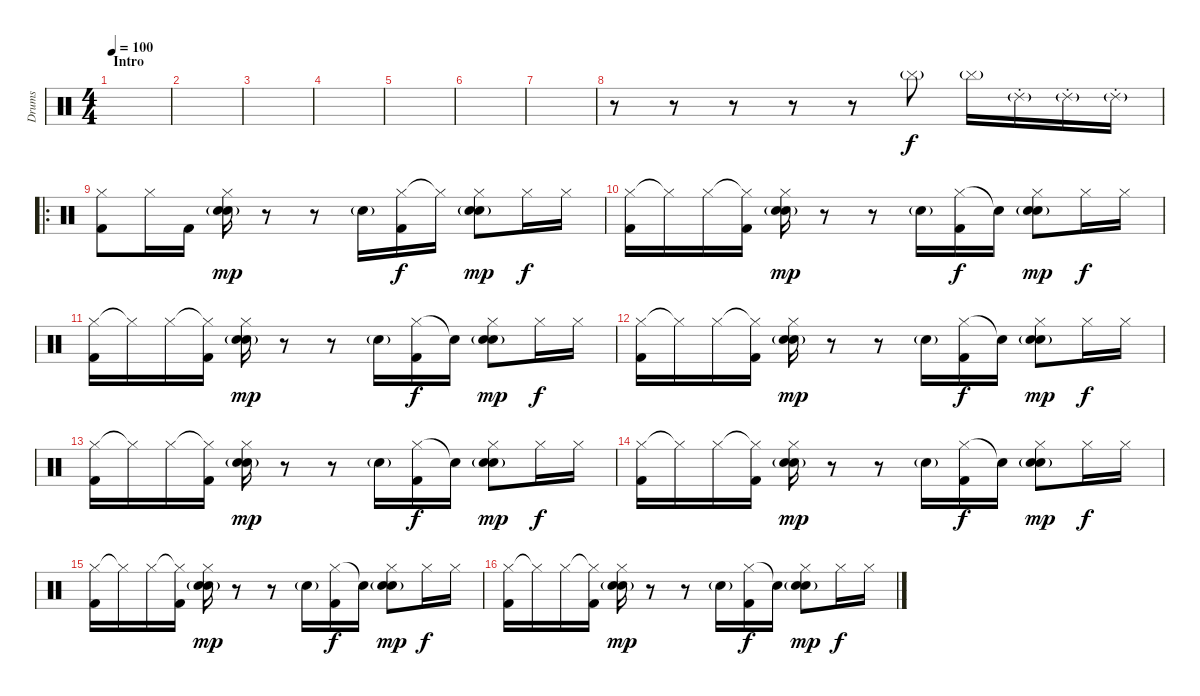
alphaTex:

\track ("Drums" "Drums") {instrument percussion}
\staff {score}
\articulation defaults
\ts (4 4)
\section ("" "Intro")
\tempo 100
\clef neutral
\ks c
|
|
|
|
|
|
|
r.8 r.8 r.8 r.8 r.8 "Cymbal (hit)"{g}.8 "Cymbal (hit)"{g}.16 "Ride (choke) 2"{g}.16 "Ride (choke) 2"{g}.16 "Ride (choke) 2"{g}.16 |
\ro
("Hi-Hat (closed)" "Kick (hit) 2").8{dy f} "Hi-Hat (closed)".16 "Kick (hit) 2".16 ("Hi-Hat (closed)" "Snare (hit) 2"{g} "Electric Snare (hit)").16{dy mp} r.8 r.8 "Electric Snare (hit)"{g}.16 ("Hi-Hat (closed)" "Kick (hit) 2").16{dy f} "Hi-Hat (closed)"{t}.16 ("Hi-Hat (closed)" "Snare (hit) 2"{g} "Electric Snare (hit)").8{dy mp} "Hi-Hat (closed)".16{dy f} "Hi-Hat (closed)".16 |
("Hi-Hat (closed)" "Kick (hit) 2").16 "Hi-Hat (closed)"{t}.16 "Hi-Hat (closed)".16 ("Hi-Hat (closed)"{t} "Kick (hit) 2").16 ("Hi-Hat (closed)" "Snare (hit) 2"{g} "Electric Snare (hit)").16{dy mp} r.8 r.8 "Electric Snare (hit)"{g}.16 ("Hi-Hat (closed)" "Kick (hit) 2").16{dy f} "Snare (hit)"{t}.16 ("Hi-Hat (closed)" "Snare (hit) 2"{g} "Electric Snare (hit)").8{dy mp} "Hi-Hat (closed)".16{dy f} "Hi-Hat (closed)".16 |
("Hi-Hat (closed)" "Kick (hit) 2").16 "Hi-Hat (closed)"{t}.16 "Hi-Hat (closed)".16 ("Hi-Hat (closed)"{t} "Kick (hit) 2").16 ("Hi-Hat (closed)" "Snare (hit) 2"{g} "Electric Snare (hit)").16{dy mp} r.8 r.8 "Electric Snare (hit)"{g}.16 ("Hi-Hat (closed)" "Kick (hit) 2").16{dy f} "Snare (hit)"{t}.16 ("Hi-Hat (closed)" "Snare (hit) 2"{g} "Electric Snare (hit)").8{dy mp} "Hi-Hat (closed)".16{dy f} "Hi-Hat (closed)".16 |
("Hi-Hat (closed)" "Kick (hit) 2").16 "Hi-Hat (closed)"{t}.16 "Hi-Hat (closed)".16 ("Hi-Hat (closed)"{t} "Kick (hit) 2").16 ("Hi-Hat (closed)" "Snare (hit) 2"{g} "Electric Snare (hit)").16{dy mp} r.8 r.8 "Electric Snare (hit)"{g}.16 ("Hi-Hat (closed)" "Kick (hit) 2").16{dy f} "Snare (hit)"{t}.16 ("Hi-Hat (closed)" "Snare (hit) 2"{g} "Electric Snare (hit)").8{dy mp} "Hi-Hat (closed)".16{dy f} "Hi-Hat (closed)".16 |
("Hi-Hat (closed)" "Kick (hit) 2").16 "Hi-Hat (closed)"{t}.16 "Hi-Hat (closed)".16 ("Hi-Hat (closed)"{t} "Kick (hit) 2").16 ("Hi-Hat (closed)" "Snare (hit) 2"{g} "Electric Snare (hit)").16{dy mp} r.8 r.8 "Electric Snare (hit)"{g}.16 ("Hi-Hat (closed)" "Kick (hit) 2").16{dy f} "Snare (hit)"{t}.16 ("Hi-Hat (closed)" "Snare (hit) 2"{g} "Electric Snare (hit)").8{dy mp} "Hi-Hat (closed)".16{dy f} "Hi-Hat (closed)".16 |
("Hi-Hat (closed)" "Kick (hit) 2").16 "Hi-Hat (closed)"{t}.16 "Hi-Hat (closed)".16 ("Hi-Hat (closed)"{t} "Kick (hit) 2").16 ("Hi-Hat (closed)" "Snare (hit) 2"{g} "Electric Snare (hit)").16{dy mp} r.8 r.8 "Electric Snare (hit)"{g}.16 ("Hi-Hat (closed)" "Kick (hit) 2").16{dy f} "Snare (hit)"{t}.16 ("Hi-Hat (closed)" "Snare (hit) 2"{g} "Electric Snare (hit)").8{dy mp} "Hi-Hat (closed)".16{dy f} "Hi-Hat (closed)".16 |
("Hi-Hat (closed)" "Kick (hit) 2").16 "Hi-Hat (closed)"{t}.16 "Hi-Hat (closed)".16 ("Hi-Hat (closed)"{t} "Kick (hit) 2").16 ("Hi-Hat (closed)" "Snare (hit) 2"{g} "Electric Snare (hit)").16{dy mp} r.8 r.8 "Electric Snare (hit)"{g}.16 ("Hi-Hat (closed)" "Kick (hit) 2").16{dy f} "Snare (hit)"{t}.16 ("Hi-Hat (closed)" "Snare (hit) 2"{g} "Electric Snare (hit)").8{dy mp} "Hi-Hat (closed)".16{dy f} "Hi-Hat (closed)".16 |
("Hi-Hat (closed)" "Kick (hit) 2").16 "Hi-Hat (closed)"{t}.16 "Hi-Hat (closed)".16 ("Hi-Hat (closed)"{t} "Kick (hit) 2").16 ("Hi-Hat (closed)" "Snare (hit) 2"{g} "Electric Snare (hit)").16{dy mp} r.8 r.8 "Electric Snare (hit)"{g}.16 ("Hi-Hat (closed)" "Kick (hit) 2").16{dy f} "Snare (hit)"{t}.16 ("Hi-Hat (closed)" "Snare (hit) 2"{g} "Electric Snare (hit)").8{dy mp} "Hi-Hat (closed)".16{dy f} "Hi-Hat (closed)".16
